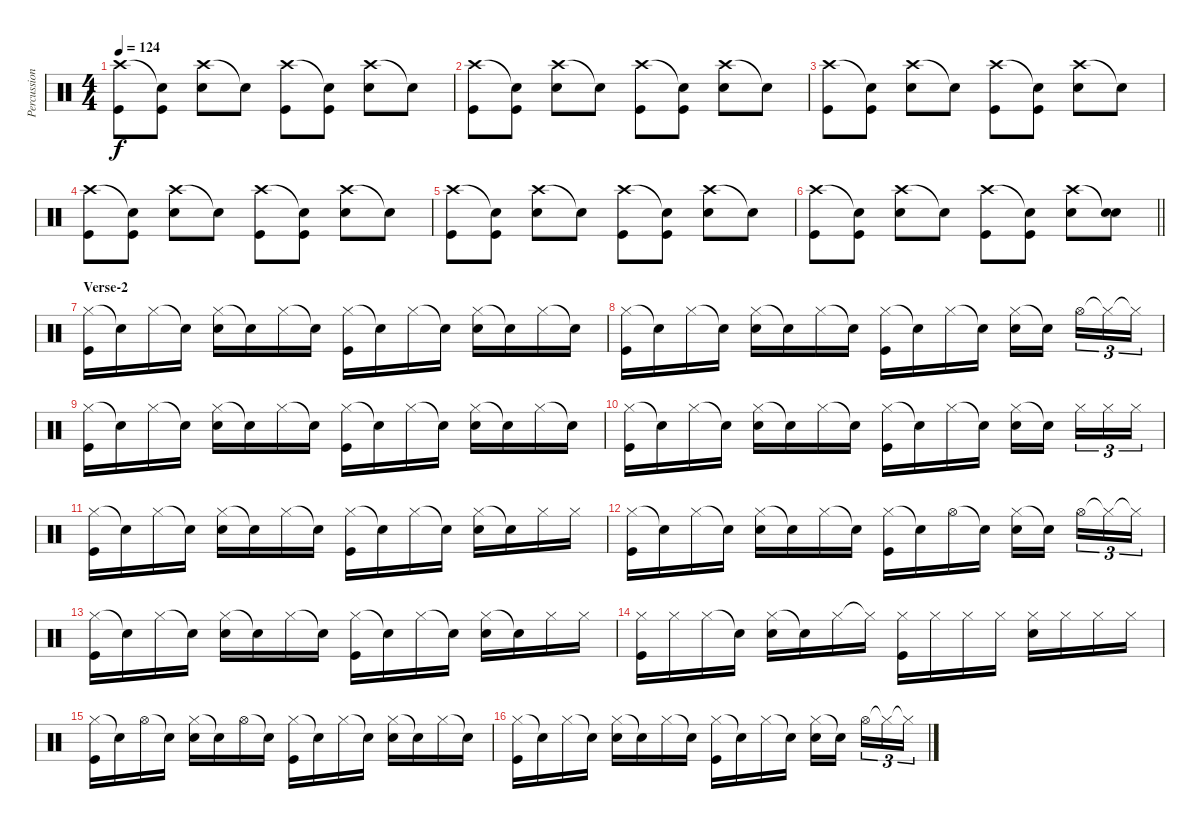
\track ("Percussion" "Percussion") {instrument percussion}
\staff {score}
\articulation defaults
\ts (4 4)
\tempo 124
\clef neutral
\ks c
("Crash high (hit)" "Kick (hit)").8{dy f} ("Snare (hit)"{t} "Kick (hit)").8 ("Crash high (hit)" "Electric Snare (hit)").8 "Snare (hit)"{t}.8 ("Crash high (hit)" "Kick (hit)").8 ("Snare (hit)"{t} "Kick (hit)").8 ("Crash high (hit)" "Electric Snare (hit)").8 "Snare (hit)"{t}.8 |
("Crash high (hit)" "Kick (hit)").8 ("Snare (hit)"{t} "Kick (hit)").8 ("Crash high (hit)" "Electric Snare (hit)").8 "Snare (hit)"{t}.8 ("Crash high (hit)" "Kick (hit)").8 ("Snare (hit)"{t} "Kick (hit)").8 ("Crash high (hit)" "Electric Snare (hit)").8 "Snare (hit)"{t}.8 |
("Crash high (hit)" "Kick (hit)").8 ("Snare (hit)"{t} "Kick (hit)").8 ("Crash high (hit)" "Electric Snare (hit)").8 "Snare (hit)"{t}.8 ("Crash high (hit)" "Kick (hit)").8 ("Snare (hit)"{t} "Kick (hit)").8 ("Crash high (hit)" "Electric Snare (hit)").8 "Snare (hit)"{t}.8 |
("Crash high (hit)" "Kick (hit)").8 ("Snare (hit)"{t} "Kick (hit)").8 ("Crash high (hit)" "Electric Snare (hit)").8 "Snare (hit)"{t}.8 ("Crash high (hit)" "Kick (hit)").8 ("Snare (hit)"{t} "Kick (hit)").8 ("Crash high (hit)" "Electric Snare (hit)").8 "Snare (hit)"{t}.8 |
("Crash high (hit)" "Kick (hit)").8 ("Snare (hit)"{t} "Kick (hit)").8 ("Crash high (hit)" "Electric Snare (hit)").8 "Snare (hit)"{t}.8 ("Crash high (hit)" "Kick (hit)").8 ("Snare (hit)"{t} "Kick (hit)").8 ("Crash high (hit)" "Electric Snare (hit)").8 "Snare (hit)"{t}.8 |
\barLineRight lightlight
("Crash high (hit)" "Kick (hit)").8 ("Snare (hit)"{t} "Kick (hit)").8 ("Crash high (hit)" "Electric Snare (hit)").8 "Snare (hit)"{t}.8 ("Crash high (hit)" "Kick (hit)").8 ("Snare (hit)"{t} "Kick (hit)").8 ("Crash high (hit)" "Electric Snare (hit)").8 ("Snare (hit)"{t} "Electric Snare (hit)").8 |
\section ("" "Verse-2")
("Hi-Hat (closed)" "Kick (hit)").16 "Snare (hit)"{t}.16 "Hi-Hat (closed)".16 "Snare (hit)"{t}.16 ("Hi-Hat (closed)" "Electric Snare (hit)").16 "Snare (hit)"{t}.16 "Hi-Hat (closed)".16 "Snare (hit)"{t}.16 ("Hi-Hat (closed)" "Kick (hit)").16 "Snare (hit)"{t}.16 "Hi-Hat (closed)".16 "Snare (hit)"{t}.16 ("Hi-Hat (closed)" "Electric Snare (hit)").16 "Snare (hit)"{t}.16 "Hi-Hat (closed)".16 "Snare (hit)"{t}.16 |
("Hi-Hat (closed)" "Kick (hit)").16 "Snare (hit)"{t}.16 "Hi-Hat (closed)".16 "Snare (hit)"{t}.16 ("Hi-Hat (closed)" "Electric Snare (hit)").16 "Snare (hit)"{t}.16 "Hi-Hat (closed)".16 "Snare (hit)"{t}.16 ("Hi-Hat (closed)" "Kick (hit)").16 "Snare (hit)"{t}.16 "Hi-Hat (closed)".16 "Snare (hit)"{t}.16 ("Hi-Hat (closed)" "Electric Snare (hit)").16 "Snare (hit)"{t}.16 "Hi-Hat (open)".16{tu (3 2)} "Hi-Hat (closed)"{t}.16{tu (3 2)} "Hi-Hat (closed)"{t}.16{tu (3 2)} |
("Hi-Hat (closed)" "Kick (hit)").16 "Snare (hit)"{t}.16 "Hi-Hat (closed)".16 "Snare (hit)"{t}.16 ("Hi-Hat (closed)" "Electric Snare (hit)").16 "Snare (hit)"{t}.16 "Hi-Hat (closed)".16 "Snare (hit)"{t}.16 ("Hi-Hat (closed)" "Kick (hit)").16 "Snare (hit)"{t}.16 "Hi-Hat (closed)".16 "Snare (hit)"{t}.16 ("Hi-Hat (closed)" "Electric Snare (hit)").16 "Snare (hit)"{t}.16 "Hi-Hat (closed)".16 "Snare (hit)"{t}.16 |
("Hi-Hat (closed)" "Kick (hit)").16 "Snare (hit)"{t}.16 "Hi-Hat (closed)".16 "Snare (hit)"{t}.16 ("Hi-Hat (closed)" "Electric Snare (hit)").16 "Snare (hit)"{t}.16 "Hi-Hat (closed)".16 "Snare (hit)"{t}.16 ("Hi-Hat (closed)" "Kick (hit)").16 "Snare (hit)"{t}.16 "Hi-Hat (closed)".16 "Snare (hit)"{t}.16 ("Hi-Hat (closed)" "Electric Snare (hit)").16 "Snare (hit)"{t}.16 "Hi-Hat (closed)".16{tu (3 2)} "Hi-Hat (closed)".16{tu (3 2)} "Hi-Hat (closed)".16{tu (3 2)} |
("Hi-Hat (closed)" "Kick (hit)").16 "Snare (hit)"{t}.16 "Hi-Hat (closed)".16 "Snare (hit)"{t}.16 ("Hi-Hat (closed)" "Electric Snare (hit)").16 "Snare (hit)"{t}.16 "Hi-Hat (closed)".16 "Snare (hit)"{t}.16 ("Hi-Hat (closed)" "Kick (hit)").16 "Snare (hit)"{t}.16 "Hi-Hat (closed)".16 "Snare (hit)"{t}.16 ("Hi-Hat (closed)" "Electric Snare (hit)").16 "Snare (hit)"{t}.16 "Hi-Hat (closed)".16 "Hi-Hat (closed)".16 |
("Hi-Hat (closed)" "Kick (hit)").16 "Snare (hit)"{t}.16 "Hi-Hat (closed)".16 "Snare (hit)"{t}.16 ("Hi-Hat (closed)" "Electric Snare (hit)").16 "Snare (hit)"{t}.16 "Hi-Hat (closed)".16 "Snare (hit)"{t}.16 ("Hi-Hat (closed)" "Kick (hit)").16 "Snare (hit)"{t}.16 "Hi-Hat (open)".16 "Snare (hit)"{t}.16 ("Hi-Hat (closed)" "Electric Snare (hit)").16 "Snare (hit)"{t}.16 "Hi-Hat (open)".16{tu (3 2)} "Hi-Hat (closed)"{t}.16{tu (3 2)} "Hi-Hat (closed)"{t}.16{tu (3 2)} |
("Hi-Hat (closed)" "Kick (hit)").16 "Snare (hit)"{t}.16 "Hi-Hat (closed)".16 "Snare (hit)"{t}.16 ("Hi-Hat (closed)" "Electric Snare (hit)").16 "Snare (hit)"{t}.16 "Hi-Hat (closed)".16 "Snare (hit)"{t}.16 ("Hi-Hat (closed)" "Kick (hit)").16 "Snare (hit)"{t}.16 "Hi-Hat (closed)".16 "Snare (hit)"{t}.16 ("Hi-Hat (closed)" "Electric Snare (hit)").16 "Snare (hit)"{t}.16 "Hi-Hat (closed)".16 "Hi-Hat (closed)".16 |
("Hi-Hat (closed)" "Kick (hit)").16 "Hi-Hat (closed)".16 "Hi-Hat (closed)".16 "Snare (hit)"{t}.16 ("Hi-Hat (closed)" "Electric Snare (hit)").16 "Snare (hit)"{t}.16 "Hi-Hat (closed)".16 "Hi-Hat (closed)"{t}.16 ("Hi-Hat (closed)" "Kick (hit)").16 "Hi-Hat (closed)".16 "Hi-Hat (closed)".16 "Hi-Hat (closed)".16 ("Hi-Hat (closed)" "Electric Snare (hit)").16 "Hi-Hat (closed)".16 "Hi-Hat (closed)".16 "Hi-Hat (closed)".16 |
("Hi-Hat (closed)" "Kick (hit)").16 "Snare (hit)"{t}.16 "Hi-Hat (open)".16 "Snare (hit)"{t}.16 ("Hi-Hat (closed)" "Electric Snare (hit)").16 "Snare (hit)"{t}.16 "Hi-Hat (open)".16 "Snare (hit)"{t}.16 ("Hi-Hat (closed)" "Kick (hit)").16 "Snare (hit)"{t}.16 "Hi-Hat (closed)".16 "Snare (hit)"{t}.16 ("Hi-Hat (closed)" "Electric Snare (hit)").16 "Snare (hit)"{t}.16 "Hi-Hat (closed)".16 "Snare (hit)"{t}.16 |
("Hi-Hat (closed)" "Kick (hit)").16 "Snare (hit)"{t}.16 "Hi-Hat (closed)".16 "Snare (hit)"{t}.16 ("Hi-Hat (closed)" "Electric Snare (hit)").16 "Snare (hit)"{t}.16 "Hi-Hat (closed)".16 "Snare (hit)"{t}.16 ("Hi-Hat (closed)" "Kick (hit)").16 "Snare (hit)"{t}.16 "Hi-Hat (closed)".16 "Snare (hit)"{t}.16 ("Hi-Hat (closed)" "Electric Snare (hit)").16 "Snare (hit)"{t}.16 "Hi-Hat (open)".16{tu (3 2)} "Hi-Hat (closed)"{t}.16{tu (3 2)} "Hi-Hat (closed)"{t}.16{tu (3 2)}
